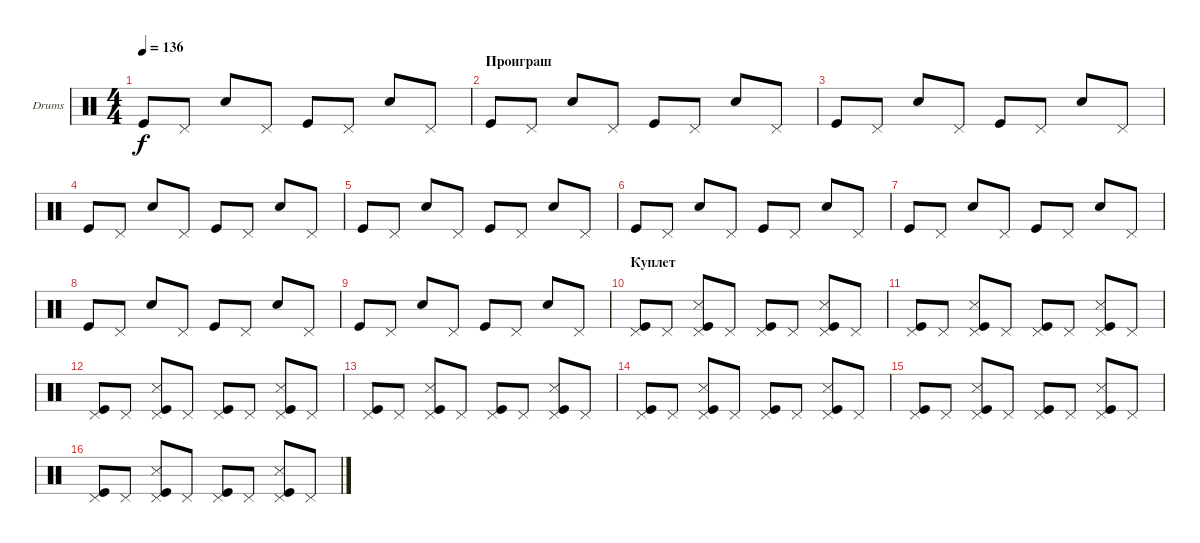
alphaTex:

\defaultSystemsLayout 4
\bracketExtendMode groupsimilarinstruments
\firstSystemTrackNameOrientation horizontal
\otherSystemsTrackNameOrientation horizontal
\track ("Е. Кулаков" "Drums") {instrument percussion}
\staff {score}
\articulation defaults
\ts (4 4)
\tempo 136
\clef neutral
\ks c "Kick (hit)".8{dy f} "Pedal Hi-Hat (hit)".8 "Snare (hit) 2".8 "Pedal Hi-Hat (hit)".8 "Kick (hit)".8 "Pedal Hi-Hat (hit)".8 "Snare (hit) 2".8 "Pedal Hi-Hat (hit)".8
|
\section ("" "Проиграш")
"Kick (hit)".8 "Pedal Hi-Hat (hit)".8 "Snare (hit) 2".8 "Pedal Hi-Hat (hit)".8 "Kick (hit)".8 "Pedal Hi-Hat (hit)".8 "Snare (hit) 2".8 "Pedal Hi-Hat (hit)".8 |
"Kick (hit)".8 "Pedal Hi-Hat (hit)".8 "Snare (hit) 2".8 "Pedal Hi-Hat (hit)".8 "Kick (hit)".8 "Pedal Hi-Hat (hit)".8 "Snare (hit) 2".8 "Pedal Hi-Hat (hit)".8 |
"Kick (hit)".8 "Pedal Hi-Hat (hit)".8 "Snare (hit) 2".8 "Pedal Hi-Hat (hit)".8 "Kick (hit)".8 "Pedal Hi-Hat (hit)".8 "Snare (hit) 2".8 "Pedal Hi-Hat (hit)".8 |
"Kick (hit)".8 "Pedal Hi-Hat (hit)".8 "Snare (hit) 2".8 "Pedal Hi-Hat (hit)".8 "Kick (hit)".8 "Pedal Hi-Hat (hit)".8 "Snare (hit) 2".8 "Pedal Hi-Hat (hit)".8 |
"Kick (hit)".8 "Pedal Hi-Hat (hit)".8 "Snare (hit) 2".8 "Pedal Hi-Hat (hit)".8 "Kick (hit)".8 "Pedal Hi-Hat (hit)".8 "Snare (hit) 2".8 "Pedal Hi-Hat (hit)".8 |
"Kick (hit)".8 "Pedal Hi-Hat (hit)".8 "Snare (hit) 2".8 "Pedal Hi-Hat (hit)".8 "Kick (hit)".8 "Pedal Hi-Hat (hit)".8 "Snare (hit) 2".8 "Pedal Hi-Hat (hit)".8 |
"Kick (hit)".8 "Pedal Hi-Hat (hit)".8 "Snare (hit) 2".8 "Pedal Hi-Hat (hit)".8 "Kick (hit)".8 "Pedal Hi-Hat (hit)".8 "Snare (hit) 2".8 "Pedal Hi-Hat (hit)".8 |
"Kick (hit)".8 "Pedal Hi-Hat (hit)".8 "Snare (hit) 2".8 "Pedal Hi-Hat (hit)".8 "Kick (hit)".8 "Pedal Hi-Hat (hit)".8 "Snare (hit) 2".8 "Pedal Hi-Hat (hit)".8 |
\section ("" "Куплет")
("Pedal Hi-Hat (hit)" "Kick (hit)").8 "Pedal Hi-Hat (hit)".8 ("Pedal Hi-Hat (hit)" "Kick (hit)" "Snare (side stick) 3").8 "Pedal Hi-Hat (hit)".8 ("Pedal Hi-Hat (hit)" "Kick (hit)").8 "Pedal Hi-Hat (hit)".8 ("Pedal Hi-Hat (hit)" "Kick (hit)" "Snare (side stick) 3").8 "Pedal Hi-Hat (hit)".8 |
("Pedal Hi-Hat (hit)" "Kick (hit)").8 "Pedal Hi-Hat (hit)".8 ("Pedal Hi-Hat (hit)" "Kick (hit)" "Snare (side stick) 3").8 "Pedal Hi-Hat (hit)".8 ("Pedal Hi-Hat (hit)" "Kick (hit)").8 "Pedal Hi-Hat (hit)".8 ("Pedal Hi-Hat (hit)" "Kick (hit)" "Snare (side stick) 3").8 "Pedal Hi-Hat (hit)".8 |
("Pedal Hi-Hat (hit)" "Kick (hit)").8 "Pedal Hi-Hat (hit)".8 ("Pedal Hi-Hat (hit)" "Kick (hit)" "Snare (side stick) 3").8 "Pedal Hi-Hat (hit)".8 ("Pedal Hi-Hat (hit)" "Kick (hit)").8 "Pedal Hi-Hat (hit)".8 ("Pedal Hi-Hat (hit)" "Kick (hit)" "Snare (side stick) 3").8 "Pedal Hi-Hat (hit)".8 |
("Pedal Hi-Hat (hit)" "Kick (hit)").8 "Pedal Hi-Hat (hit)".8 ("Pedal Hi-Hat (hit)" "Kick (hit)" "Snare (side stick) 3").8 "Pedal Hi-Hat (hit)".8 ("Pedal Hi-Hat (hit)" "Kick (hit)").8 "Pedal Hi-Hat (hit)".8 ("Pedal Hi-Hat (hit)" "Kick (hit)" "Snare (side stick) 3").8 "Pedal Hi-Hat (hit)".8 |
("Pedal Hi-Hat (hit)" "Kick (hit)").8 "Pedal Hi-Hat (hit)".8 ("Pedal Hi-Hat (hit)" "Kick (hit)" "Snare (side stick) 3").8 "Pedal Hi-Hat (hit)".8 ("Pedal Hi-Hat (hit)" "Kick (hit)").8 "Pedal Hi-Hat (hit)".8 ("Pedal Hi-Hat (hit)" "Kick (hit)" "Snare (side stick) 3").8 "Pedal Hi-Hat (hit)".8 |
("Pedal Hi-Hat (hit)" "Kick (hit)").8 "Pedal Hi-Hat (hit)".8 ("Pedal Hi-Hat (hit)" "Kick (hit)" "Snare (side stick) 3").8 "Pedal Hi-Hat (hit)".8 ("Pedal Hi-Hat (hit)" "Kick (hit)").8 "Pedal Hi-Hat (hit)".8 ("Pedal Hi-Hat (hit)" "Kick (hit)" "Snare (side stick) 3").8 "Pedal Hi-Hat (hit)".8 |
("Pedal Hi-Hat (hit)" "Kick (hit)").8 "Pedal Hi-Hat (hit)".8 ("Pedal Hi-Hat (hit)" "Kick (hit)" "Snare (side stick) 3").8 "Pedal Hi-Hat (hit)".8 ("Pedal Hi-Hat (hit)" "Kick (hit)").8 "Pedal Hi-Hat (hit)".8 ("Pedal Hi-Hat (hit)" "Kick (hit)" "Snare (side stick) 3").8 "Pedal Hi-Hat (hit)".8
